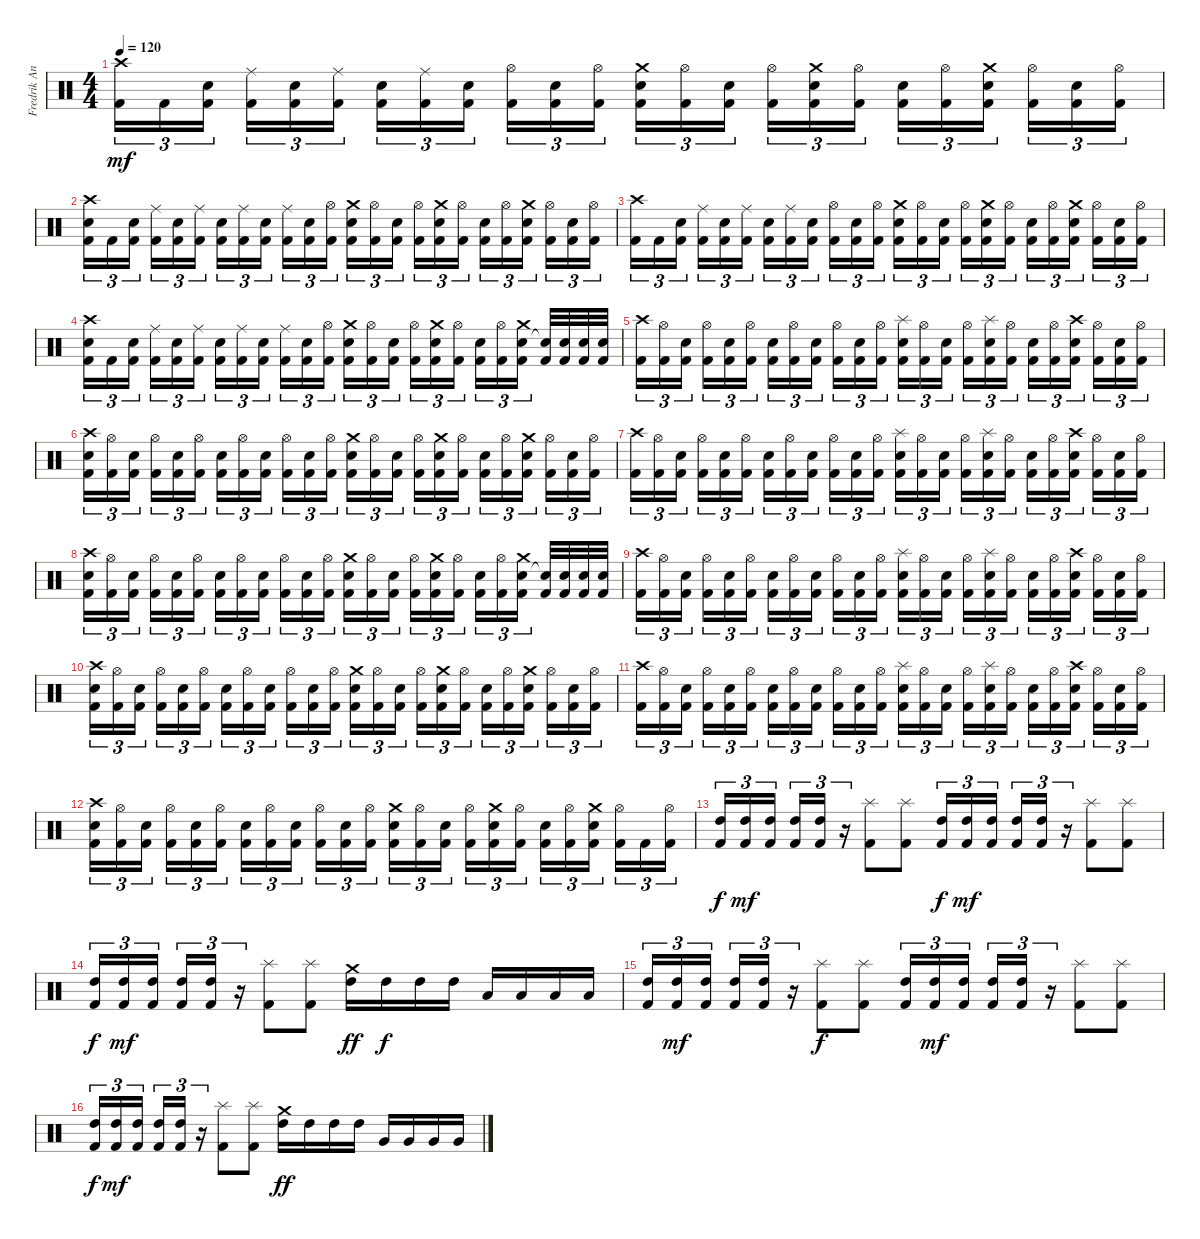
\track ("Fredrik Andersson" "Fredrik An") {instrument percussion}
\staff {score}
\articulation defaults
\ts (4 4)
\tempo 120
\clef neutral
\ks c
("Crash high (hit)" "Kick (hit) 2").16{tu (3 2) dy mf} "Kick (hit) 2".16{tu (3 2)} ("Snare (hit) 2" "Kick (hit) 2").16{tu (3 2) beam splitsecondary} ("Ride (middle)" "Kick (hit) 2").16{tu (3 2)} ("Snare (hit) 2" "Kick (hit) 2").16{tu (3 2)} ("Ride (middle)" "Kick (hit) 2").16{tu (3 2)} ("Snare (hit) 2" "Kick (hit) 2").16{tu (3 2)} ("Ride (middle)" "Kick (hit) 2").16{tu (3 2)} ("Snare (hit) 2" "Kick (hit) 2").16{tu (3 2) beam splitsecondary} ("Hi-Hat (open)" "Kick (hit) 2").16{tu (3 2)} ("Snare (hit) 2" "Kick (hit) 2").16{tu (3 2)} ("Hi-Hat (open)" "Kick (hit) 2").16{tu (3 2)} ("Snare (hit) 2" "Crash medium (hit)" "Kick (hit) 2").16{tu (3 2)} ("Hi-Hat (open)" "Kick (hit) 2").16{tu (3 2)} ("Snare (hit) 2" "Kick (hit) 2").16{tu (3 2) beam splitsecondary} ("Hi-Hat (open)" "Kick (hit) 2").16{tu (3 2)} ("Snare (hit) 2" "Crash medium (hit)" "Kick (hit) 2").16{tu (3 2)} ("Hi-Hat (open)" "Kick (hit) 2").16{tu (3 2)} ("Snare (hit) 2" "Kick (hit) 2").16{tu (3 2)} ("Hi-Hat (open)" "Kick (hit) 2").16{tu (3 2)} ("Snare (hit) 2" "Crash medium (hit)" "Kick (hit) 2").16{tu (3 2) beam splitsecondary} ("Hi-Hat (open)" "Kick (hit) 2").16{tu (3 2)} ("Snare (hit) 2" "Kick (hit) 2").16{tu (3 2)} ("Hi-Hat (open)" "Kick (hit) 2").16{tu (3 2)} |
("Snare (hit) 2" "Crash high (hit)" "Kick (hit) 2").16{tu (3 2)} "Kick (hit) 2".16{tu (3 2)} ("Snare (hit) 2" "Kick (hit) 2").16{tu (3 2) beam splitsecondary} ("Ride (middle)" "Kick (hit) 2").16{tu (3 2)} ("Snare (hit) 2" "Kick (hit) 2").16{tu (3 2)} ("Ride (middle)" "Kick (hit) 2").16{tu (3 2)} ("Snare (hit) 2" "Kick (hit) 2").16{tu (3 2)} ("Ride (middle)" "Kick (hit) 2").16{tu (3 2)} ("Snare (hit) 2" "Kick (hit) 2").16{tu (3 2) beam splitsecondary} ("Ride (middle)" "Kick (hit) 2").16{tu (3 2)} ("Snare (hit) 2" "Kick (hit) 2").16{tu (3 2)} ("Hi-Hat (open)" "Kick (hit) 2").16{tu (3 2)} ("Snare (hit) 2" "Crash medium (hit)" "Kick (hit) 2").16{tu (3 2)} ("Hi-Hat (open)" "Kick (hit) 2").16{tu (3 2)} ("Snare (hit) 2" "Kick (hit) 2").16{tu (3 2) beam splitsecondary} ("Hi-Hat (open)" "Kick (hit) 2").16{tu (3 2)} ("Snare (hit) 2" "Crash medium (hit)" "Kick (hit) 2").16{tu (3 2)} ("Hi-Hat (open)" "Kick (hit) 2").16{tu (3 2)} ("Snare (hit) 2" "Kick (hit) 2").16{tu (3 2)} ("Hi-Hat (open)" "Kick (hit) 2").16{tu (3 2)} ("Snare (hit) 2" "Crash medium (hit)" "Kick (hit) 2").16{tu (3 2) beam splitsecondary} ("Hi-Hat (open)" "Kick (hit) 2").16{tu (3 2)} ("Snare (hit) 2" "Kick (hit) 2").16{tu (3 2)} ("Hi-Hat (open)" "Kick (hit) 2").16{tu (3 2)} |
("Crash high (hit)" "Kick (hit) 2").16{tu (3 2)} "Kick (hit) 2".16{tu (3 2)} ("Snare (hit) 2" "Kick (hit) 2").16{tu (3 2) beam splitsecondary} ("Ride (middle)" "Kick (hit) 2").16{tu (3 2)} ("Snare (hit) 2" "Kick (hit) 2").16{tu (3 2)} ("Ride (middle)" "Kick (hit) 2").16{tu (3 2)} ("Snare (hit) 2" "Kick (hit) 2").16{tu (3 2)} ("Ride (middle)" "Kick (hit) 2").16{tu (3 2)} ("Snare (hit) 2" "Kick (hit) 2").16{tu (3 2) beam splitsecondary} ("Hi-Hat (open)" "Kick (hit) 2").16{tu (3 2)} ("Snare (hit) 2" "Kick (hit) 2").16{tu (3 2)} ("Hi-Hat (open)" "Kick (hit) 2").16{tu (3 2)} ("Snare (hit) 2" "Crash medium (hit)" "Kick (hit) 2").16{tu (3 2)} ("Hi-Hat (open)" "Kick (hit) 2").16{tu (3 2)} ("Snare (hit) 2" "Kick (hit) 2").16{tu (3 2) beam splitsecondary} ("Hi-Hat (open)" "Kick (hit) 2").16{tu (3 2)} ("Snare (hit) 2" "Crash medium (hit)" "Kick (hit) 2").16{tu (3 2)} ("Hi-Hat (open)" "Kick (hit) 2").16{tu (3 2)} ("Snare (hit) 2" "Kick (hit) 2").16{tu (3 2)} ("Hi-Hat (open)" "Kick (hit) 2").16{tu (3 2)} ("Snare (hit) 2" "Crash medium (hit)" "Kick (hit) 2").16{tu (3 2) beam splitsecondary} ("Hi-Hat (open)" "Kick (hit) 2").16{tu (3 2)} ("Snare (hit) 2" "Kick (hit) 2").16{tu (3 2)} ("Hi-Hat (open)" "Kick (hit) 2").16{tu (3 2)} |
("Snare (hit) 2" "Crash high (hit)" "Kick (hit) 2").16{tu (3 2)} "Kick (hit) 2".16{tu (3 2)} ("Snare (hit) 2" "Kick (hit) 2").16{tu (3 2) beam splitsecondary} ("Ride (middle)" "Kick (hit) 2").16{tu (3 2)} ("Snare (hit) 2" "Kick (hit) 2").16{tu (3 2)} ("Ride (middle)" "Kick (hit) 2").16{tu (3 2)} ("Snare (hit) 2" "Kick (hit) 2").16{tu (3 2)} ("Ride (middle)" "Kick (hit) 2").16{tu (3 2)} ("Snare (hit) 2" "Kick (hit) 2").16{tu (3 2) beam splitsecondary} ("Ride (middle)" "Kick (hit) 2").16{tu (3 2)} ("Snare (hit) 2" "Kick (hit) 2").16{tu (3 2)} ("Hi-Hat (open)" "Kick (hit) 2").16{tu (3 2)} ("Snare (hit) 2" "Crash medium (hit)" "Kick (hit) 2").16{tu (3 2)} ("Hi-Hat (open)" "Kick (hit) 2").16{tu (3 2)} ("Snare (hit) 2" "Kick (hit) 2").16{tu (3 2) beam splitsecondary} ("Hi-Hat (open)" "Kick (hit) 2").16{tu (3 2)} ("Snare (hit) 2" "Crash medium (hit)" "Kick (hit) 2").16{tu (3 2)} ("Hi-Hat (open)" "Kick (hit) 2").16{tu (3 2)} ("Snare (hit) 2" "Kick (hit) 2").16{tu (3 2)} ("Hi-Hat (open)" "Kick (hit) 2").16{tu (3 2)} ("Snare (hit) 2" "Crash medium (hit)" "Kick (hit) 2").16{tu (3 2) beam splitsecondary} ("Snare (hit) 2"{t} "Kick (hit) 2").32 ("Snare (hit) 2" "Kick (hit) 2").32 ("Snare (hit) 2" "Kick (hit) 2").32 ("Snare (hit) 2" "Kick (hit) 2").32 |
("Crash high (hit)" "Kick (hit) 2").16{tu (3 2)} ("Hi-Hat (open)" "Kick (hit) 2").16{tu (3 2)} ("Snare (hit) 2" "Kick (hit) 2").16{tu (3 2) beam splitsecondary} ("Hi-Hat (open)" "Kick (hit) 2").16{tu (3 2)} ("Snare (hit) 2" "Kick (hit) 2").16{tu (3 2)} ("Hi-Hat (open)" "Kick (hit) 2").16{tu (3 2)} ("Snare (hit) 2" "Kick (hit) 2").16{tu (3 2)} ("Hi-Hat (open)" "Kick (hit) 2").16{tu (3 2)} ("Snare (hit) 2" "Kick (hit) 2").16{tu (3 2) beam splitsecondary} ("Hi-Hat (open)" "Kick (hit) 2").16{tu (3 2)} ("Snare (hit) 2" "Kick (hit) 2").16{tu (3 2)} ("Hi-Hat (open)" "Kick (hit) 2").16{tu (3 2)} ("Snare (hit) 2" "Splash (hit)" "Kick (hit) 2").16{tu (3 2)} ("Hi-Hat (open)" "Kick (hit) 2").16{tu (3 2)} ("Snare (hit) 2" "Kick (hit) 2").16{tu (3 2) beam splitsecondary} ("Hi-Hat (open)" "Kick (hit) 2").16{tu (3 2)} ("Snare (hit) 2" "Splash (hit)" "Kick (hit) 2").16{tu (3 2)} ("Hi-Hat (open)" "Kick (hit) 2").16{tu (3 2)} ("Snare (hit) 2" "Kick (hit) 2").16{tu (3 2)} ("Hi-Hat (open)" "Kick (hit) 2").16{tu (3 2)} ("Snare (hit) 2" "Crash high (hit)" "Kick (hit) 2").16{tu (3 2) beam splitsecondary} ("Hi-Hat (open)" "Kick (hit) 2").16{tu (3 2)} ("Snare (hit) 2" "Kick (hit) 2").16{tu (3 2)} ("Hi-Hat (open)" "Kick (hit) 2").16{tu (3 2)} |
("Snare (hit) 2" "Crash high (hit)" "Kick (hit) 2").16{tu (3 2)} ("Hi-Hat (open)" "Kick (hit) 2").16{tu (3 2)} ("Snare (hit) 2" "Kick (hit) 2").16{tu (3 2) beam splitsecondary} ("Hi-Hat (open)" "Kick (hit) 2").16{tu (3 2)} ("Snare (hit) 2" "Kick (hit) 2").16{tu (3 2)} ("Hi-Hat (open)" "Kick (hit) 2").16{tu (3 2)} ("Snare (hit) 2" "Kick (hit) 2").16{tu (3 2)} ("Hi-Hat (open)" "Kick (hit) 2").16{tu (3 2)} ("Snare (hit) 2" "Kick (hit) 2").16{tu (3 2) beam splitsecondary} ("Hi-Hat (open)" "Kick (hit) 2").16{tu (3 2)} ("Snare (hit) 2" "Kick (hit) 2").16{tu (3 2)} ("Hi-Hat (open)" "Kick (hit) 2").16{tu (3 2)} ("Snare (hit) 2" "Crash medium (hit)" "Kick (hit) 2").16{tu (3 2)} ("Hi-Hat (open)" "Kick (hit) 2").16{tu (3 2)} ("Snare (hit) 2" "Kick (hit) 2").16{tu (3 2) beam splitsecondary} ("Hi-Hat (open)" "Kick (hit) 2").16{tu (3 2)} ("Snare (hit) 2" "Crash medium (hit)" "Kick (hit) 2").16{tu (3 2)} ("Hi-Hat (open)" "Kick (hit) 2").16{tu (3 2)} ("Snare (hit) 2" "Kick (hit) 2").16{tu (3 2)} ("Hi-Hat (open)" "Kick (hit) 2").16{tu (3 2)} ("Snare (hit) 2" "Crash medium (hit)" "Kick (hit) 2").16{tu (3 2) beam splitsecondary} ("Hi-Hat (open)" "Kick (hit) 2").16{tu (3 2)} ("Snare (hit) 2" "Kick (hit) 2").16{tu (3 2)} ("Hi-Hat (open)" "Kick (hit) 2").16{tu (3 2)} |
("Crash high (hit)" "Kick (hit) 2").16{tu (3 2)} ("Hi-Hat (open)" "Kick (hit) 2").16{tu (3 2)} ("Snare (hit) 2" "Kick (hit) 2").16{tu (3 2) beam splitsecondary} ("Hi-Hat (open)" "Kick (hit) 2").16{tu (3 2)} ("Snare (hit) 2" "Kick (hit) 2").16{tu (3 2)} ("Hi-Hat (open)" "Kick (hit) 2").16{tu (3 2)} ("Snare (hit) 2" "Kick (hit) 2").16{tu (3 2)} ("Hi-Hat (open)" "Kick (hit) 2").16{tu (3 2)} ("Snare (hit) 2" "Kick (hit) 2").16{tu (3 2) beam splitsecondary} ("Hi-Hat (open)" "Kick (hit) 2").16{tu (3 2)} ("Snare (hit) 2" "Kick (hit) 2").16{tu (3 2)} ("Hi-Hat (open)" "Kick (hit) 2").16{tu (3 2)} ("Snare (hit) 2" "Splash (hit)" "Kick (hit) 2").16{tu (3 2)} ("Hi-Hat (open)" "Kick (hit) 2").16{tu (3 2)} ("Snare (hit) 2" "Kick (hit) 2").16{tu (3 2) beam splitsecondary} ("Hi-Hat (open)" "Kick (hit) 2").16{tu (3 2)} ("Snare (hit) 2" "Splash (hit)" "Kick (hit) 2").16{tu (3 2)} ("Hi-Hat (open)" "Kick (hit) 2").16{tu (3 2)} ("Snare (hit) 2" "Kick (hit) 2").16{tu (3 2)} ("Hi-Hat (open)" "Kick (hit) 2").16{tu (3 2)} ("Snare (hit) 2" "Crash high (hit)" "Kick (hit) 2").16{tu (3 2) beam splitsecondary} ("Hi-Hat (open)" "Kick (hit) 2").16{tu (3 2)} ("Snare (hit) 2" "Kick (hit) 2").16{tu (3 2)} ("Hi-Hat (open)" "Kick (hit) 2").16{tu (3 2)} |
("Snare (hit) 2" "Crash high (hit)" "Kick (hit) 2").16{tu (3 2)} ("Hi-Hat (open)" "Kick (hit) 2").16{tu (3 2)} ("Snare (hit) 2" "Kick (hit) 2").16{tu (3 2) beam splitsecondary} ("Hi-Hat (open)" "Kick (hit) 2").16{tu (3 2)} ("Snare (hit) 2" "Kick (hit) 2").16{tu (3 2)} ("Hi-Hat (open)" "Kick (hit) 2").16{tu (3 2)} ("Snare (hit) 2" "Kick (hit) 2").16{tu (3 2)} ("Hi-Hat (open)" "Kick (hit) 2").16{tu (3 2)} ("Snare (hit) 2" "Kick (hit) 2").16{tu (3 2) beam splitsecondary} ("Hi-Hat (open)" "Kick (hit) 2").16{tu (3 2)} ("Snare (hit) 2" "Kick (hit) 2").16{tu (3 2)} ("Hi-Hat (open)" "Kick (hit) 2").16{tu (3 2)} ("Snare (hit) 2" "Crash medium (hit)" "Kick (hit) 2").16{tu (3 2)} ("Hi-Hat (open)" "Kick (hit) 2").16{tu (3 2)} ("Snare (hit) 2" "Kick (hit) 2").16{tu (3 2) beam splitsecondary} ("Hi-Hat (open)" "Kick (hit) 2").16{tu (3 2)} ("Snare (hit) 2" "Crash medium (hit)" "Kick (hit) 2").16{tu (3 2)} ("Hi-Hat (open)" "Kick (hit) 2").16{tu (3 2)} ("Snare (hit) 2" "Kick (hit) 2").16{tu (3 2)} ("Hi-Hat (open)" "Kick (hit) 2").16{tu (3 2)} ("Snare (hit) 2" "Crash medium (hit)" "Kick (hit) 2").16{tu (3 2) beam splitsecondary} ("Snare (hit) 2"{t} "Kick (hit) 2").32 ("Snare (hit) 2" "Kick (hit) 2").32 ("Snare (hit) 2" "Kick (hit) 2").32 ("Snare (hit) 2" "Kick (hit) 2").32 |
("Crash high (hit)" "Kick (hit) 2").16{tu (3 2)} ("Hi-Hat (open)" "Kick (hit) 2").16{tu (3 2)} ("Snare (hit) 2" "Kick (hit) 2").16{tu (3 2) beam splitsecondary} ("Hi-Hat (open)" "Kick (hit) 2").16{tu (3 2)} ("Snare (hit) 2" "Kick (hit) 2").16{tu (3 2)} ("Hi-Hat (open)" "Kick (hit) 2").16{tu (3 2)} ("Snare (hit) 2" "Kick (hit) 2").16{tu (3 2)} ("Hi-Hat (open)" "Kick (hit) 2").16{tu (3 2)} ("Snare (hit) 2" "Kick (hit) 2").16{tu (3 2) beam splitsecondary} ("Hi-Hat (open)" "Kick (hit) 2").16{tu (3 2)} ("Snare (hit) 2" "Kick (hit) 2").16{tu (3 2)} ("Hi-Hat (open)" "Kick (hit) 2").16{tu (3 2)} ("Snare (hit) 2" "Splash (hit)" "Kick (hit) 2").16{tu (3 2)} ("Hi-Hat (open)" "Kick (hit) 2").16{tu (3 2)} ("Snare (hit) 2" "Kick (hit) 2").16{tu (3 2) beam splitsecondary} ("Hi-Hat (open)" "Kick (hit) 2").16{tu (3 2)} ("Snare (hit) 2" "Splash (hit)" "Kick (hit) 2").16{tu (3 2)} ("Hi-Hat (open)" "Kick (hit) 2").16{tu (3 2)} ("Snare (hit) 2" "Kick (hit) 2").16{tu (3 2)} ("Hi-Hat (open)" "Kick (hit) 2").16{tu (3 2)} ("Snare (hit) 2" "Crash high (hit)" "Kick (hit) 2").16{tu (3 2) beam splitsecondary} ("Hi-Hat (open)" "Kick (hit) 2").16{tu (3 2)} ("Snare (hit) 2" "Kick (hit) 2").16{tu (3 2)} ("Hi-Hat (open)" "Kick (hit) 2").16{tu (3 2)} |
("Snare (hit) 2" "Crash high (hit)" "Kick (hit) 2").16{tu (3 2)} ("Hi-Hat (open)" "Kick (hit) 2").16{tu (3 2)} ("Snare (hit) 2" "Kick (hit) 2").16{tu (3 2) beam splitsecondary} ("Hi-Hat (open)" "Kick (hit) 2").16{tu (3 2)} ("Snare (hit) 2" "Kick (hit) 2").16{tu (3 2)} ("Hi-Hat (open)" "Kick (hit) 2").16{tu (3 2)} ("Snare (hit) 2" "Kick (hit) 2").16{tu (3 2)} ("Hi-Hat (open)" "Kick (hit) 2").16{tu (3 2)} ("Snare (hit) 2" "Kick (hit) 2").16{tu (3 2) beam splitsecondary} ("Hi-Hat (open)" "Kick (hit) 2").16{tu (3 2)} ("Snare (hit) 2" "Kick (hit) 2").16{tu (3 2)} ("Hi-Hat (open)" "Kick (hit) 2").16{tu (3 2)} ("Snare (hit) 2" "Crash medium (hit)" "Kick (hit) 2").16{tu (3 2)} ("Hi-Hat (open)" "Kick (hit) 2").16{tu (3 2)} ("Snare (hit) 2" "Kick (hit) 2").16{tu (3 2) beam splitsecondary} ("Hi-Hat (open)" "Kick (hit) 2").16{tu (3 2)} ("Snare (hit) 2" "Crash medium (hit)" "Kick (hit) 2").16{tu (3 2)} ("Hi-Hat (open)" "Kick (hit) 2").16{tu (3 2)} ("Snare (hit) 2" "Kick (hit) 2").16{tu (3 2)} ("Hi-Hat (open)" "Kick (hit) 2").16{tu (3 2)} ("Snare (hit) 2" "Crash medium (hit)" "Kick (hit) 2").16{tu (3 2) beam splitsecondary} ("Hi-Hat (open)" "Kick (hit) 2").16{tu (3 2)} ("Snare (hit) 2" "Kick (hit) 2").16{tu (3 2)} ("Hi-Hat (open)" "Kick (hit) 2").16{tu (3 2)} |
("Crash high (hit)" "Kick (hit) 2").16{tu (3 2)} ("Hi-Hat (open)" "Kick (hit) 2").16{tu (3 2)} ("Snare (hit) 2" "Kick (hit) 2").16{tu (3 2) beam splitsecondary} ("Hi-Hat (open)" "Kick (hit) 2").16{tu (3 2)} ("Snare (hit) 2" "Kick (hit) 2").16{tu (3 2)} ("Hi-Hat (open)" "Kick (hit) 2").16{tu (3 2)} ("Snare (hit) 2" "Kick (hit) 2").16{tu (3 2)} ("Hi-Hat (open)" "Kick (hit) 2").16{tu (3 2)} ("Snare (hit) 2" "Kick (hit) 2").16{tu (3 2) beam splitsecondary} ("Hi-Hat (open)" "Kick (hit) 2").16{tu (3 2)} ("Snare (hit) 2" "Kick (hit) 2").16{tu (3 2)} ("Hi-Hat (open)" "Kick (hit) 2").16{tu (3 2)} ("Snare (hit) 2" "Splash (hit)" "Kick (hit) 2").16{tu (3 2)} ("Hi-Hat (open)" "Kick (hit) 2").16{tu (3 2)} ("Snare (hit) 2" "Kick (hit) 2").16{tu (3 2) beam splitsecondary} ("Hi-Hat (open)" "Kick (hit) 2").16{tu (3 2)} ("Snare (hit) 2" "Splash (hit)" "Kick (hit) 2").16{tu (3 2)} ("Hi-Hat (open)" "Kick (hit) 2").16{tu (3 2)} ("Snare (hit) 2" "Kick (hit) 2").16{tu (3 2)} ("Hi-Hat (open)" "Kick (hit) 2").16{tu (3 2)} ("Snare (hit) 2" "Crash high (hit)" "Kick (hit) 2").16{tu (3 2) beam splitsecondary} ("Hi-Hat (open)" "Kick (hit) 2").16{tu (3 2)} ("Snare (hit) 2" "Kick (hit) 2").16{tu (3 2)} ("Hi-Hat (open)" "Kick (hit) 2").16{tu (3 2)} |
("Snare (hit) 2" "Crash high (hit)" "Kick (hit) 2").16{tu (3 2)} ("Hi-Hat (open)" "Kick (hit) 2").16{tu (3 2)} ("Snare (hit) 2" "Kick (hit) 2").16{tu (3 2) beam splitsecondary} ("Hi-Hat (open)" "Kick (hit) 2").16{tu (3 2)} ("Snare (hit) 2" "Kick (hit) 2").16{tu (3 2)} ("Hi-Hat (open)" "Kick (hit) 2").16{tu (3 2)} ("Snare (hit) 2" "Kick (hit) 2").16{tu (3 2)} ("Hi-Hat (open)" "Kick (hit) 2").16{tu (3 2)} ("Snare (hit) 2" "Kick (hit) 2").16{tu (3 2) beam splitsecondary} ("Hi-Hat (open)" "Kick (hit) 2").16{tu (3 2)} ("Snare (hit) 2" "Kick (hit) 2").16{tu (3 2)} ("Hi-Hat (open)" "Kick (hit) 2").16{tu (3 2)} ("Snare (hit) 2" "Crash medium (hit)" "Kick (hit) 2").16{tu (3 2)} ("Hi-Hat (open)" "Kick (hit) 2").16{tu (3 2)} ("Snare (hit) 2" "Kick (hit) 2").16{tu (3 2) beam splitsecondary} ("Hi-Hat (open)" "Kick (hit) 2").16{tu (3 2)} ("Snare (hit) 2" "Crash medium (hit)" "Kick (hit) 2").16{tu (3 2)} ("Hi-Hat (open)" "Kick (hit) 2").16{tu (3 2)} ("Snare (hit) 2" "Kick (hit) 2").16{tu (3 2)} ("Hi-Hat (open)" "Kick (hit) 2").16{tu (3 2)} ("Snare (hit) 2" "Crash medium (hit)" "Kick (hit) 2").16{tu (3 2) beam splitsecondary} ("Hi-Hat (open)" "Kick (hit) 2").16{tu (3 2)} "Kick (hit) 2".16{tu (3 2)} ("Hi-Hat (open)" "Kick (hit) 2").16{tu (3 2)} |
("High Tom (hit)" "Kick (hit) 2").16{tu (3 2) dy f} ("High Tom (hit)" "Kick (hit) 2").16{tu (3 2) dy mf} ("High Tom (hit)" "Kick (hit) 2").16{tu (3 2) beam splitsecondary} ("High Tom (hit)" "Kick (hit) 2").16{tu (3 2)} ("High Tom (hit)" "Kick (hit) 2").16{tu (3 2)} r.16{tu (3 2)} ("Splash (hit)" "Kick (hit) 2").8 ("Splash (hit)" "Kick (hit) 2").8 ("High Tom (hit)" "Kick (hit) 2").16{tu (3 2) dy f} ("High Tom (hit)" "Kick (hit) 2").16{tu (3 2) dy mf} ("High Tom (hit)" "Kick (hit) 2").16{tu (3 2) beam splitsecondary} ("High Tom (hit)" "Kick (hit) 2").16{tu (3 2)} ("High Tom (hit)" "Kick (hit) 2").16{tu (3 2)} r.16{tu (3 2)} ("Splash (hit)" "Kick (hit) 2").8 ("Splash (hit)" "Kick (hit) 2").8 |
("High Tom (hit)" "Kick (hit) 2").16{tu (3 2) dy f} ("High Tom (hit)" "Kick (hit) 2").16{tu (3 2) dy mf} ("High Tom (hit)" "Kick (hit) 2").16{tu (3 2) beam splitsecondary} ("High Tom (hit)" "Kick (hit) 2").16{tu (3 2)} ("High Tom (hit)" "Kick (hit) 2").16{tu (3 2)} r.16{tu (3 2)} ("Splash (hit)" "Kick (hit) 2").8 ("Splash (hit)" "Kick (hit) 2").8 ("Crash medium (hit)" "High Tom (hit)").16{dy ff} "High Tom (hit)".16{dy f} "High Tom (hit)".16 "High Tom (hit)".16 "Low Tom (hit)".16 "Low Tom (hit)".16 "Low Tom (hit)".16 "Low Tom (hit)".16 |
("High Tom (hit)" "Kick (hit) 2").16{tu (3 2)} ("High Tom (hit)" "Kick (hit) 2").16{tu (3 2) dy mf} ("High Tom (hit)" "Kick (hit) 2").16{tu (3 2) beam splitsecondary} ("High Tom (hit)" "Kick (hit) 2").16{tu (3 2)} ("High Tom (hit)" "Kick (hit) 2").16{tu (3 2)} r.16{tu (3 2)} ("Splash (hit)" "Kick (hit) 2").8{dy f} ("Splash (hit)" "Kick (hit) 2").8 ("High Tom (hit)" "Kick (hit) 2").16{tu (3 2)} ("High Tom (hit)" "Kick (hit) 2").16{tu (3 2) dy mf} ("High Tom (hit)" "Kick (hit) 2").16{tu (3 2) beam splitsecondary} ("High Tom (hit)" "Kick (hit) 2").16{tu (3 2)} ("High Tom (hit)" "Kick (hit) 2").16{tu (3 2)} r.16{tu (3 2)} ("Splash (hit)" "Kick (hit) 2").8 ("Splash (hit)" "Kick (hit) 2").8 |
("High Tom (hit)" "Kick (hit) 2").16{tu (3 2) dy f} ("High Tom (hit)" "Kick (hit) 2").16{tu (3 2) dy mf} ("High Tom (hit)" "Kick (hit) 2").16{tu (3 2) beam splitsecondary} ("High Tom (hit)" "Kick (hit) 2").16{tu (3 2)} ("High Tom (hit)" "Kick (hit) 2").16{tu (3 2)} r.16{tu (3 2)} ("Splash (hit)" "Kick (hit) 2").8 ("Splash (hit)" "Kick (hit) 2").8 ("Crash medium (hit)" "High Tom (hit)").16{dy ff} "High Tom (hit)".16 "High Tom (hit)".16 "High Tom (hit)".16 "Very Low Tom (hit)".16 "Very Low Tom (hit)".16 "Very Low Tom (hit)".16 "Very Low Tom (hit)".16
